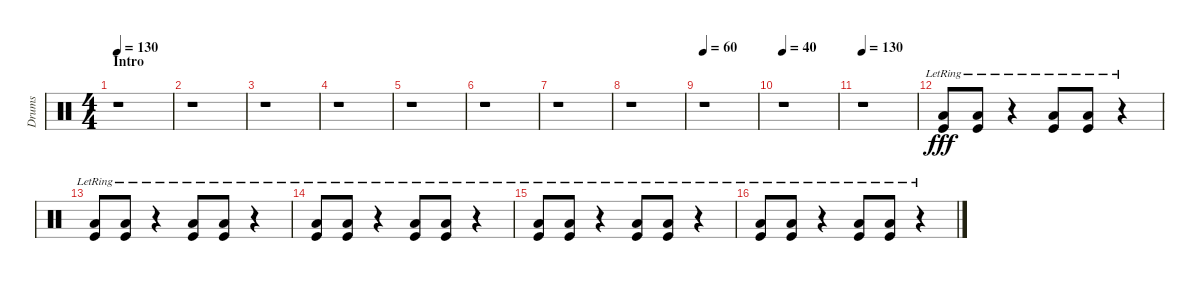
\track ("Drums" "Drums") {instrument percussion}
\staff {score}
\articulation defaults
\ts (4 4)
\section ("" "Intro")
\tempo 130
\tempo 112
\tempo 130
\clef neutral
\ks c
r.1{dy fff} |
r.1 |
r.1 |
r.1 |
r.1 |
r.1 |
r.1 |
r.1 |
\tempo 60
r.1 |
\tempo 40
r.1 |
\tempo 130
r.1 |
("Kick (hit)"{lr} "Low Tom (hit)"{lr}).8 ("Kick (hit)"{lr} "Low Tom (hit)"{lr}).8 r.4 ("Kick (hit)"{lr} "Low Tom (hit)"{lr}).8 ("Kick (hit)"{lr} "Low Tom (hit)"{lr}).8 r.4 |
("Kick (hit)"{lr} "Low Tom (hit)"{lr}).8 ("Kick (hit)"{lr} "Low Tom (hit)"{lr}).8 r.4 ("Kick (hit)"{lr} "Low Tom (hit)"{lr}).8 ("Kick (hit)"{lr} "Low Tom (hit)"{lr}).8 r.4 |
("Kick (hit)"{lr} "Low Tom (hit)"{lr}).8 ("Kick (hit)"{lr} "Low Tom (hit)"{lr}).8 r.4 ("Kick (hit)"{lr} "Low Tom (hit)"{lr}).8 ("Kick (hit)"{lr} "Low Tom (hit)"{lr}).8 r.4 |
("Kick (hit)"{lr} "Low Tom (hit)"{lr}).8 ("Kick (hit)"{lr} "Low Tom (hit)"{lr}).8 r.4 ("Kick (hit)"{lr} "Low Tom (hit)"{lr}).8 ("Kick (hit)"{lr} "Low Tom (hit)"{lr}).8 r.4 |
("Kick (hit)"{lr} "Low Tom (hit)"{lr}).8 ("Kick (hit)"{lr} "Low Tom (hit)"{lr}).8 r.4 ("Kick (hit)"{lr} "Low Tom (hit)"{lr}).8 ("Kick (hit)"{lr} "Low Tom (hit)"{lr}).8 r.4
